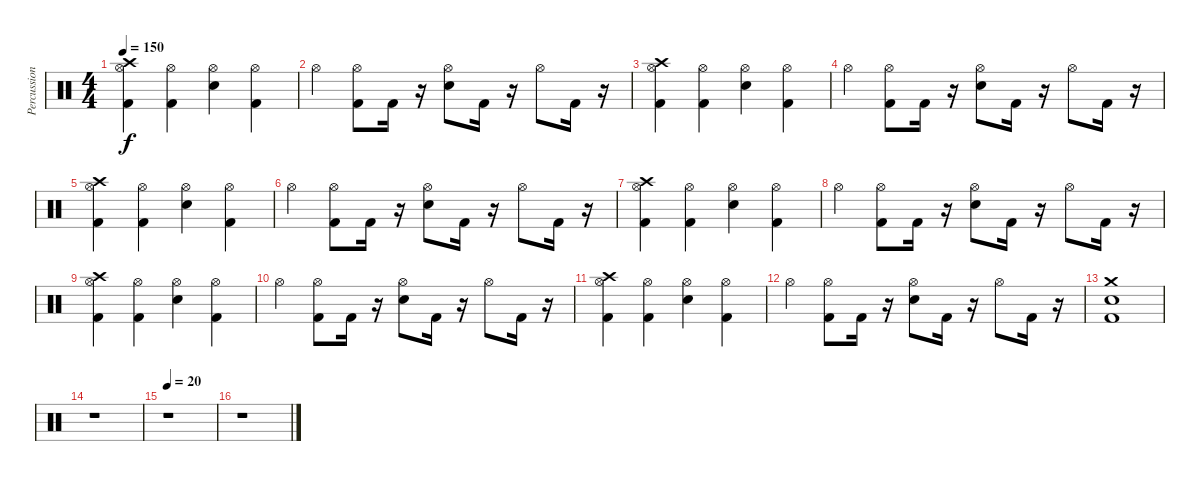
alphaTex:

\track ("Percussion" "Percussion") {instrument percussion}
\staff {score}
\articulation defaults
\ts (4 4)
\tempo 150
\clef neutral
\ks c
("Kick (hit) 2" "Hi-Hat (open)" "Crash high (hit)").4{dy f} ("Kick (hit) 2" "Hi-Hat (open)").4 ("Electric Snare (hit)" "Hi-Hat (open)").4 ("Kick (hit) 2" "Hi-Hat (open)").4 |
"Hi-Hat (open)".4 ("Kick (hit) 2" "Hi-Hat (open)").8 "Kick (hit) 2".16 r.16 ("Electric Snare (hit)" "Hi-Hat (open)").8 "Kick (hit) 2".16 r.16 "Hi-Hat (open)".8 "Kick (hit) 2".16 r.16 |
("Kick (hit) 2" "Hi-Hat (open)" "Crash high (hit)").4 ("Kick (hit) 2" "Hi-Hat (open)").4 ("Electric Snare (hit)" "Hi-Hat (open)").4 ("Kick (hit) 2" "Hi-Hat (open)").4 |
"Hi-Hat (open)".4 ("Kick (hit) 2" "Hi-Hat (open)").8 "Kick (hit) 2".16 r.16 ("Electric Snare (hit)" "Hi-Hat (open)").8 "Kick (hit) 2".16 r.16 "Hi-Hat (open)".8 "Kick (hit) 2".16 r.16 |
("Kick (hit) 2" "Hi-Hat (open)" "Crash high (hit)").4 ("Kick (hit) 2" "Hi-Hat (open)").4 ("Electric Snare (hit)" "Hi-Hat (open)").4 ("Kick (hit) 2" "Hi-Hat (open)").4 |
"Hi-Hat (open)".4 ("Kick (hit) 2" "Hi-Hat (open)").8 "Kick (hit) 2".16 r.16 ("Electric Snare (hit)" "Hi-Hat (open)").8 "Kick (hit) 2".16 r.16 "Hi-Hat (open)".8 "Kick (hit) 2".16 r.16 |
("Kick (hit) 2" "Hi-Hat (open)" "Crash high (hit)").4 ("Kick (hit) 2" "Hi-Hat (open)").4 ("Electric Snare (hit)" "Hi-Hat (open)").4 ("Kick (hit) 2" "Hi-Hat (open)").4 |
"Hi-Hat (open)".4 ("Kick (hit) 2" "Hi-Hat (open)").8 "Kick (hit) 2".16 r.16 ("Electric Snare (hit)" "Hi-Hat (open)").8 "Kick (hit) 2".16 r.16 "Hi-Hat (open)".8 "Kick (hit) 2".16 r.16 |
("Kick (hit) 2" "Hi-Hat (open)" "Crash high (hit)").4 ("Kick (hit) 2" "Hi-Hat (open)").4 ("Electric Snare (hit)" "Hi-Hat (open)").4 ("Kick (hit) 2" "Hi-Hat (open)").4 |
"Hi-Hat (open)".4 ("Kick (hit) 2" "Hi-Hat (open)").8 "Kick (hit) 2".16 r.16 ("Electric Snare (hit)" "Hi-Hat (open)").8 "Kick (hit) 2".16 r.16 "Hi-Hat (open)".8 "Kick (hit) 2".16 r.16 |
("Kick (hit) 2" "Hi-Hat (open)" "Crash high (hit)").4 ("Kick (hit) 2" "Hi-Hat (open)").4 ("Electric Snare (hit)" "Hi-Hat (open)").4 ("Kick (hit) 2" "Hi-Hat (open)").4 |
"Hi-Hat (open)".4 ("Kick (hit) 2" "Hi-Hat (open)").8 "Kick (hit) 2".16 r.16 ("Electric Snare (hit)" "Hi-Hat (open)").8 "Kick (hit) 2".16 r.16 "Hi-Hat (open)".8 "Kick (hit) 2".16 r.16 |
("Kick (hit) 2" "Electric Snare (hit)" "Crash medium (hit)").1 |
r.1 |
\tempo 20
r.1 |
r.1
